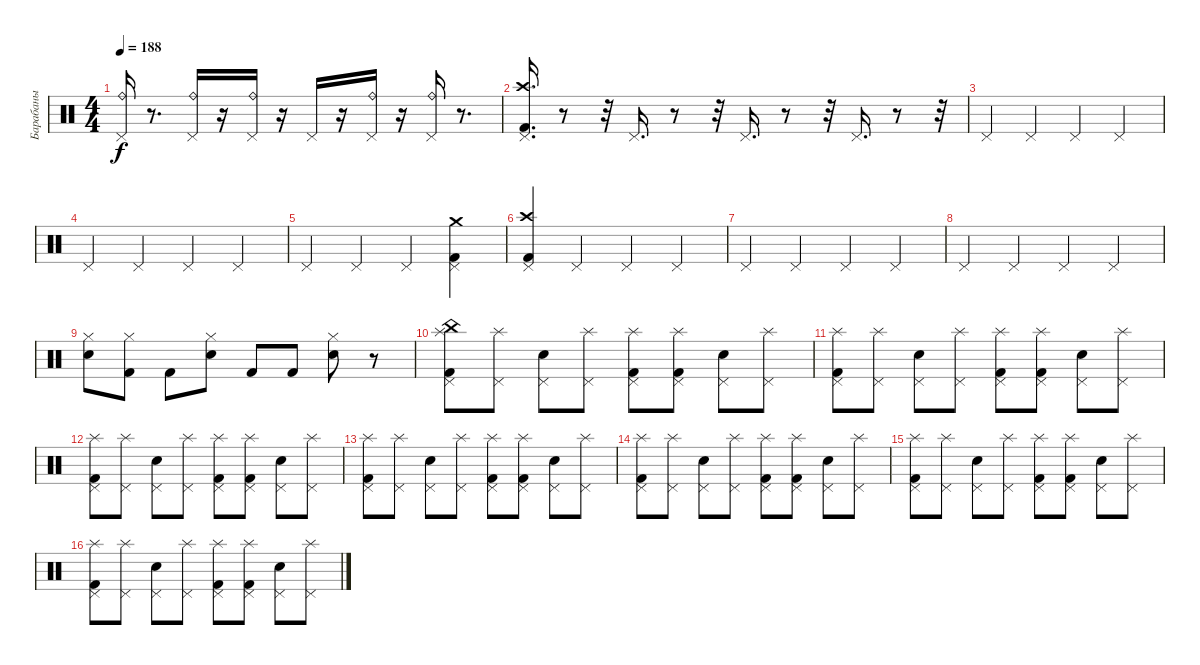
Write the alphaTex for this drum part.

\track ("Барабаны" "Барабаны") {instrument percussion}
\staff {score}
\articulation defaults
\ts (4 4)
\tempo 188
\clef neutral
\ks c
("Pedal Hi-Hat (hit)" "Ride (bell)").16{dy f} r.8{d} ("Pedal Hi-Hat (hit)" "Ride (bell)").16 r.16 ("Pedal Hi-Hat (hit)" "Ride (bell)").16 r.16 "Pedal Hi-Hat (hit)".16 r.16 ("Pedal Hi-Hat (hit)" "Ride (bell)").16 r.16 ("Pedal Hi-Hat (hit)" "Ride (bell)").16 r.8{d} |
("Pedal Hi-Hat (hit)" "Crash high (hit)" "Kick (hit) 2").16{d} r.8 r.32 "Pedal Hi-Hat (hit)".16{d} r.8 r.32 "Pedal Hi-Hat (hit)".16{d} r.8 r.32 "Pedal Hi-Hat (hit)".16{d} r.8 r.32 |
"Pedal Hi-Hat (hit)".4 "Pedal Hi-Hat (hit)".4 "Pedal Hi-Hat (hit)".4 "Pedal Hi-Hat (hit)".4 |
"Pedal Hi-Hat (hit)".4 "Pedal Hi-Hat (hit)".4 "Pedal Hi-Hat (hit)".4 "Pedal Hi-Hat (hit)".4 |
"Pedal Hi-Hat (hit)".4 "Pedal Hi-Hat (hit)".4 "Pedal Hi-Hat (hit)".4 ("Pedal Hi-Hat (hit)" "Crash medium (hit)" "Kick (hit) 2").4 |
("Pedal Hi-Hat (hit)" "Kick (hit) 2" "Crash high (hit)").4 "Pedal Hi-Hat (hit)".4 "Pedal Hi-Hat (hit)".4 "Pedal Hi-Hat (hit)".4 |
"Pedal Hi-Hat (hit)".4 "Pedal Hi-Hat (hit)".4 "Pedal Hi-Hat (hit)".4 "Pedal Hi-Hat (hit)".4 |
"Pedal Hi-Hat (hit)".4 "Pedal Hi-Hat (hit)".4 "Pedal Hi-Hat (hit)".4 "Pedal Hi-Hat (hit)".4 |
("Hi-Hat (closed)" "Snare (hit) 2").8 ("Hi-Hat (closed)" "Kick (hit) 2").8 "Kick (hit) 2".8 ("Hi-Hat (closed)" "Snare (hit) 2").8 "Kick (hit) 2".8 "Kick (hit) 2".8 ("Hi-Hat (closed)" "Snare (hit) 2").8 r.8 |
("Pedal Hi-Hat (hit)" "Kick (hit) 2" "China (hit)" "Splash (hit)").8 ("Pedal Hi-Hat (hit)" "Splash (hit)").8 ("Pedal Hi-Hat (hit)" "Electric Snare (hit)").8 ("Pedal Hi-Hat (hit)" "Splash (hit)").8 ("Pedal Hi-Hat (hit)" "Kick (hit) 2" "Splash (hit)").8 ("Pedal Hi-Hat (hit)" "Kick (hit) 2" "Splash (hit)").8 ("Pedal Hi-Hat (hit)" "Electric Snare (hit)").8 ("Pedal Hi-Hat (hit)" "Splash (hit)").8 |
("Pedal Hi-Hat (hit)" "Kick (hit) 2" "Splash (hit)").8 ("Pedal Hi-Hat (hit)" "Splash (hit)").8 ("Pedal Hi-Hat (hit)" "Electric Snare (hit)").8 ("Pedal Hi-Hat (hit)" "Splash (hit)").8 ("Pedal Hi-Hat (hit)" "Kick (hit) 2" "Splash (hit)").8 ("Pedal Hi-Hat (hit)" "Kick (hit) 2" "Splash (hit)").8 ("Pedal Hi-Hat (hit)" "Electric Snare (hit)").8 ("Pedal Hi-Hat (hit)" "Splash (hit)").8 |
("Pedal Hi-Hat (hit)" "Kick (hit) 2" "Splash (hit)").8 ("Pedal Hi-Hat (hit)" "Splash (hit)").8 ("Pedal Hi-Hat (hit)" "Electric Snare (hit)").8 ("Pedal Hi-Hat (hit)" "Splash (hit)").8 ("Pedal Hi-Hat (hit)" "Kick (hit) 2" "Splash (hit)").8 ("Pedal Hi-Hat (hit)" "Kick (hit) 2" "Splash (hit)").8 ("Pedal Hi-Hat (hit)" "Electric Snare (hit)").8 ("Pedal Hi-Hat (hit)" "Splash (hit)").8 |
("Pedal Hi-Hat (hit)" "Kick (hit) 2" "Splash (hit)").8 ("Pedal Hi-Hat (hit)" "Splash (hit)").8 ("Pedal Hi-Hat (hit)" "Electric Snare (hit)").8 ("Pedal Hi-Hat (hit)" "Splash (hit)").8 ("Pedal Hi-Hat (hit)" "Kick (hit) 2" "Splash (hit)").8 ("Pedal Hi-Hat (hit)" "Kick (hit) 2" "Splash (hit)").8 ("Pedal Hi-Hat (hit)" "Electric Snare (hit)").8 ("Pedal Hi-Hat (hit)" "Splash (hit)").8 |
("Pedal Hi-Hat (hit)" "Kick (hit) 2" "Splash (hit)").8 ("Pedal Hi-Hat (hit)" "Splash (hit)").8 ("Pedal Hi-Hat (hit)" "Electric Snare (hit)").8 ("Pedal Hi-Hat (hit)" "Splash (hit)").8 ("Pedal Hi-Hat (hit)" "Kick (hit) 2" "Splash (hit)").8 ("Pedal Hi-Hat (hit)" "Kick (hit) 2" "Splash (hit)").8 ("Pedal Hi-Hat (hit)" "Electric Snare (hit)").8 ("Pedal Hi-Hat (hit)" "Splash (hit)").8 |
("Pedal Hi-Hat (hit)" "Kick (hit) 2" "Splash (hit)").8 ("Pedal Hi-Hat (hit)" "Splash (hit)").8 ("Pedal Hi-Hat (hit)" "Electric Snare (hit)").8 ("Pedal Hi-Hat (hit)" "Splash (hit)").8 ("Pedal Hi-Hat (hit)" "Kick (hit) 2" "Splash (hit)").8 ("Pedal Hi-Hat (hit)" "Kick (hit) 2" "Splash (hit)").8 ("Pedal Hi-Hat (hit)" "Electric Snare (hit)").8 ("Pedal Hi-Hat (hit)" "Splash (hit)").8 |
("Pedal Hi-Hat (hit)" "Kick (hit) 2" "Splash (hit)").8 ("Pedal Hi-Hat (hit)" "Splash (hit)").8 ("Pedal Hi-Hat (hit)" "Electric Snare (hit)").8 ("Pedal Hi-Hat (hit)" "Splash (hit)").8 ("Pedal Hi-Hat (hit)" "Kick (hit) 2" "Splash (hit)").8 ("Pedal Hi-Hat (hit)" "Kick (hit) 2" "Splash (hit)").8 ("Pedal Hi-Hat (hit)" "Electric Snare (hit)").8 ("Pedal Hi-Hat (hit)" "Splash (hit)").8
